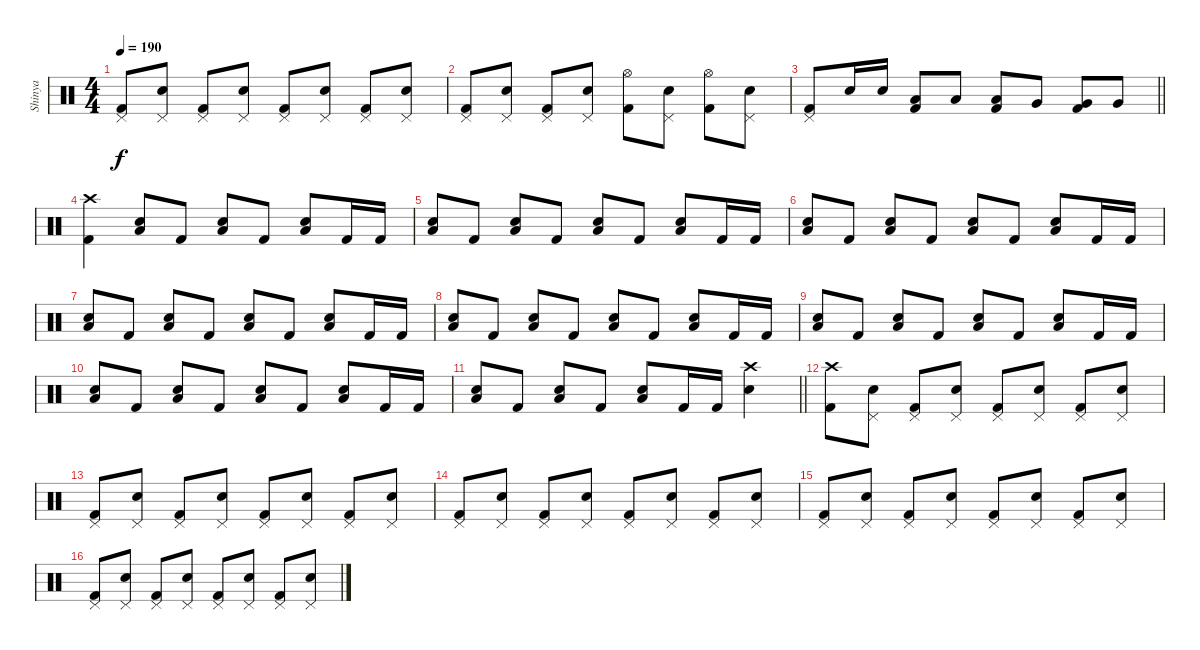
\track ("Shinya" "Shinya") {instrument percussion}
\staff {score}
\articulation defaults
\ts (4 4)
\tempo 190
\clef neutral
\ks c
("Pedal Hi-Hat (hit)" "Kick (hit) 2").8{dy f} ("Pedal Hi-Hat (hit)" "Electric Snare (hit)").8 ("Pedal Hi-Hat (hit)" "Kick (hit) 2").8 ("Pedal Hi-Hat (hit)" "Electric Snare (hit)").8 ("Pedal Hi-Hat (hit)" "Kick (hit) 2").8 ("Pedal Hi-Hat (hit)" "Electric Snare (hit)").8 ("Pedal Hi-Hat (hit)" "Kick (hit) 2").8 ("Pedal Hi-Hat (hit)" "Electric Snare (hit)").8 |
("Pedal Hi-Hat (hit)" "Kick (hit) 2").8 ("Pedal Hi-Hat (hit)" "Electric Snare (hit)").8 ("Pedal Hi-Hat (hit)" "Kick (hit) 2").8 ("Pedal Hi-Hat (hit)" "Electric Snare (hit)").8 ("Hi-Hat (open)" "Kick (hit) 2").8 ("Pedal Hi-Hat (hit)" "Electric Snare (hit)").8 ("Hi-Hat (open)" "Kick (hit) 2").8 ("Pedal Hi-Hat (hit)" "Electric Snare (hit)").8 |
\barLineRight lightlight
("Pedal Hi-Hat (hit)" "Kick (hit) 2").8 "Electric Snare (hit)".16 "Electric Snare (hit)".16 ("Low Tom (hit)" "Kick (hit) 2").8 "Low Tom (hit)".8 ("Low Tom (hit)" "Kick (hit) 2").8 "Very Low Tom (hit)".8 ("Very Low Tom (hit)" "Kick (hit) 2").8 "Very Low Tom (hit)".8 |
("Crash high (hit)" "Kick (hit) 2").4 ("Low Floor Tom (hit)" "Electric Snare (hit)").8 "Kick (hit) 2".8 ("Low Floor Tom (hit)" "Electric Snare (hit)").8 "Kick (hit) 2".8 ("Low Floor Tom (hit)" "Electric Snare (hit)").8 "Kick (hit) 2".16 "Kick (hit) 2".16 |
("Low Floor Tom (hit)" "Electric Snare (hit)").8 "Kick (hit) 2".8 ("Low Floor Tom (hit)" "Electric Snare (hit)").8 "Kick (hit) 2".8 ("Low Floor Tom (hit)" "Electric Snare (hit)").8 "Kick (hit) 2".8 ("Low Floor Tom (hit)" "Electric Snare (hit)").8 "Kick (hit) 2".16 "Kick (hit) 2".16 |
("Low Floor Tom (hit)" "Electric Snare (hit)").8 "Kick (hit) 2".8 ("Low Floor Tom (hit)" "Electric Snare (hit)").8 "Kick (hit) 2".8 ("Low Floor Tom (hit)" "Electric Snare (hit)").8 "Kick (hit) 2".8 ("Low Floor Tom (hit)" "Electric Snare (hit)").8 "Kick (hit) 2".16 "Kick (hit) 2".16 |
("Low Floor Tom (hit)" "Electric Snare (hit)").8 "Kick (hit) 2".8 ("Low Floor Tom (hit)" "Electric Snare (hit)").8 "Kick (hit) 2".8 ("Low Floor Tom (hit)" "Electric Snare (hit)").8 "Kick (hit) 2".8 ("Low Floor Tom (hit)" "Electric Snare (hit)").8 "Kick (hit) 2".16 "Kick (hit) 2".16 |
("Low Floor Tom (hit)" "Electric Snare (hit)").8 "Kick (hit) 2".8 ("Low Floor Tom (hit)" "Electric Snare (hit)").8 "Kick (hit) 2".8 ("Low Floor Tom (hit)" "Electric Snare (hit)").8 "Kick (hit) 2".8 ("Low Floor Tom (hit)" "Electric Snare (hit)").8 "Kick (hit) 2".16 "Kick (hit) 2".16 |
("Low Floor Tom (hit)" "Electric Snare (hit)").8 "Kick (hit) 2".8 ("Low Floor Tom (hit)" "Electric Snare (hit)").8 "Kick (hit) 2".8 ("Low Floor Tom (hit)" "Electric Snare (hit)").8 "Kick (hit) 2".8 ("Low Floor Tom (hit)" "Electric Snare (hit)").8 "Kick (hit) 2".16 "Kick (hit) 2".16 |
("Low Floor Tom (hit)" "Electric Snare (hit)").8 "Kick (hit) 2".8 ("Low Floor Tom (hit)" "Electric Snare (hit)").8 "Kick (hit) 2".8 ("Low Floor Tom (hit)" "Electric Snare (hit)").8 "Kick (hit) 2".8 ("Low Floor Tom (hit)" "Electric Snare (hit)").8 "Kick (hit) 2".16 "Kick (hit) 2".16 |
\barLineRight lightlight
("Low Floor Tom (hit)" "Electric Snare (hit)").8 "Kick (hit) 2".8 ("Low Floor Tom (hit)" "Electric Snare (hit)").8 "Kick (hit) 2".8 ("Low Floor Tom (hit)" "Electric Snare (hit)").8 "Kick (hit) 2".16 "Kick (hit) 2".16 ("Crash high (hit)" "Electric Snare (hit)").4 |
("Crash high (hit)" "Kick (hit) 2").8 ("Pedal Hi-Hat (hit)" "Electric Snare (hit)").8 ("Pedal Hi-Hat (hit)" "Kick (hit) 2").8 ("Pedal Hi-Hat (hit)" "Electric Snare (hit)").8 ("Pedal Hi-Hat (hit)" "Kick (hit) 2").8 ("Pedal Hi-Hat (hit)" "Electric Snare (hit)").8 ("Pedal Hi-Hat (hit)" "Kick (hit) 2").8 ("Pedal Hi-Hat (hit)" "Electric Snare (hit)").8 |
("Pedal Hi-Hat (hit)" "Kick (hit) 2").8 ("Pedal Hi-Hat (hit)" "Electric Snare (hit)").8 ("Pedal Hi-Hat (hit)" "Kick (hit) 2").8 ("Pedal Hi-Hat (hit)" "Electric Snare (hit)").8 ("Pedal Hi-Hat (hit)" "Kick (hit) 2").8 ("Pedal Hi-Hat (hit)" "Electric Snare (hit)").8 ("Pedal Hi-Hat (hit)" "Kick (hit) 2").8 ("Pedal Hi-Hat (hit)" "Electric Snare (hit)").8 |
("Pedal Hi-Hat (hit)" "Kick (hit) 2").8 ("Pedal Hi-Hat (hit)" "Electric Snare (hit)").8 ("Pedal Hi-Hat (hit)" "Kick (hit) 2").8 ("Pedal Hi-Hat (hit)" "Electric Snare (hit)").8 ("Pedal Hi-Hat (hit)" "Kick (hit) 2").8 ("Pedal Hi-Hat (hit)" "Electric Snare (hit)").8 ("Pedal Hi-Hat (hit)" "Kick (hit) 2").8 ("Pedal Hi-Hat (hit)" "Electric Snare (hit)").8 |
("Pedal Hi-Hat (hit)" "Kick (hit) 2").8 ("Pedal Hi-Hat (hit)" "Electric Snare (hit)").8 ("Pedal Hi-Hat (hit)" "Kick (hit) 2").8 ("Pedal Hi-Hat (hit)" "Electric Snare (hit)").8 ("Pedal Hi-Hat (hit)" "Kick (hit) 2").8 ("Pedal Hi-Hat (hit)" "Electric Snare (hit)").8 ("Pedal Hi-Hat (hit)" "Kick (hit) 2").8 ("Pedal Hi-Hat (hit)" "Electric Snare (hit)").8 |
("Pedal Hi-Hat (hit)" "Kick (hit) 2").8 ("Pedal Hi-Hat (hit)" "Electric Snare (hit)").8 ("Pedal Hi-Hat (hit)" "Kick (hit) 2").8 ("Pedal Hi-Hat (hit)" "Electric Snare (hit)").8 ("Pedal Hi-Hat (hit)" "Kick (hit) 2").8 ("Pedal Hi-Hat (hit)" "Electric Snare (hit)").8 ("Pedal Hi-Hat (hit)" "Kick (hit) 2").8 ("Pedal Hi-Hat (hit)" "Electric Snare (hit)").8
